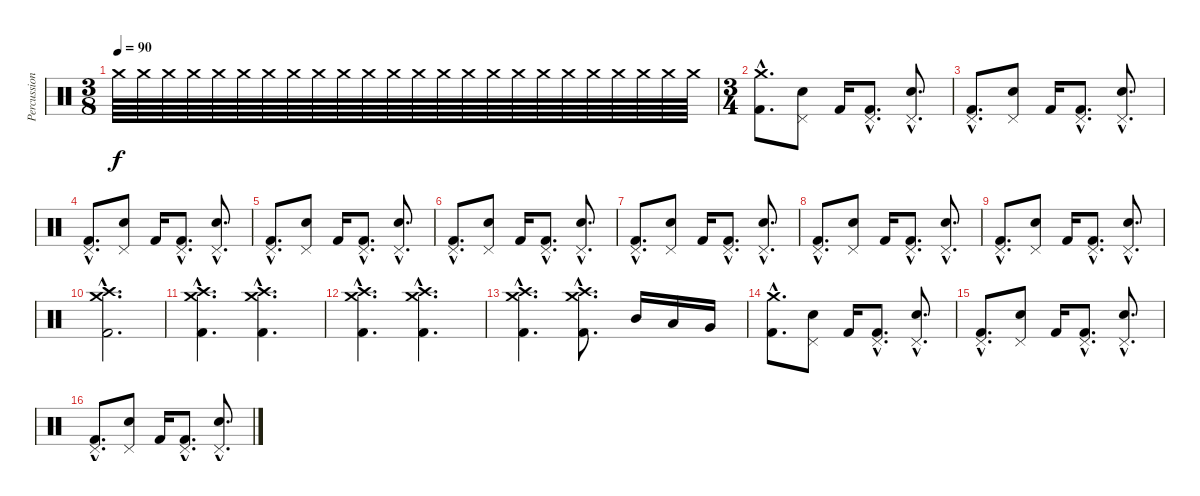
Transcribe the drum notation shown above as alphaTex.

\track ("Percussion" "Percussion") {instrument percussion}
\staff {score}
\articulation defaults
\ts (3 8)
\tempo 90
\clef neutral
\ks c "Crash medium (hit)".64{dy f volume 13} "Crash medium (hit)".64 "Crash medium (hit)".64 "Crash medium (hit)".64 "Crash medium (hit)".64 "Crash medium (hit)".64 "Crash medium (hit)".64 "Crash medium (hit)".64 "Crash medium (hit)".64 "Crash medium (hit)".64 "Crash medium (hit)".64 "Crash medium (hit)".64 "Crash medium (hit)".64 "Crash medium (hit)".64 "Crash medium (hit)".64 "Crash medium (hit)".64 "Crash medium (hit)".64 "Crash medium (hit)".64 "Crash medium (hit)".64 "Crash medium (hit)".64 "Crash medium (hit)".64 "Crash medium (hit)".64 "Crash medium (hit)".64 "Crash medium (hit)".64
|
\ts (3 4)
("Kick (hit) 2"{hac} "Crash medium (hit)"{hac}).8{d} ("Electric Snare (hit)" "Pedal Hi-Hat (hit)").8 "Kick (hit) 2".16 ("Kick (hit) 2"{hac} "Pedal Hi-Hat (hit)"{hac}).8{d} ("Electric Snare (hit)"{hac} "Pedal Hi-Hat (hit)"{hac}).8{d} |
("Kick (hit) 2"{hac} "Pedal Hi-Hat (hit)"{hac}).8{d} ("Electric Snare (hit)" "Pedal Hi-Hat (hit)").8 "Kick (hit) 2".16 ("Kick (hit) 2"{hac} "Pedal Hi-Hat (hit)"{hac}).8{d} ("Electric Snare (hit)"{hac} "Pedal Hi-Hat (hit)"{hac}).8{d} |
("Kick (hit) 2"{hac} "Pedal Hi-Hat (hit)"{hac}).8{d} ("Electric Snare (hit)" "Pedal Hi-Hat (hit)").8 "Kick (hit) 2".16 ("Kick (hit) 2"{hac} "Pedal Hi-Hat (hit)"{hac}).8{d} ("Electric Snare (hit)"{hac} "Pedal Hi-Hat (hit)"{hac}).8{d} |
("Kick (hit) 2"{hac} "Pedal Hi-Hat (hit)"{hac}).8{d} ("Electric Snare (hit)" "Pedal Hi-Hat (hit)").8 "Kick (hit) 2".16 ("Kick (hit) 2"{hac} "Pedal Hi-Hat (hit)"{hac}).8{d} ("Electric Snare (hit)"{hac} "Pedal Hi-Hat (hit)"{hac}).8{d} |
("Kick (hit) 2"{hac} "Pedal Hi-Hat (hit)"{hac}).8{d} ("Electric Snare (hit)" "Pedal Hi-Hat (hit)").8 "Kick (hit) 2".16 ("Kick (hit) 2"{hac} "Pedal Hi-Hat (hit)"{hac}).8{d} ("Electric Snare (hit)"{hac} "Pedal Hi-Hat (hit)"{hac}).8{d} |
("Kick (hit) 2"{hac} "Pedal Hi-Hat (hit)"{hac}).8{d} ("Electric Snare (hit)" "Pedal Hi-Hat (hit)").8 "Kick (hit) 2".16 ("Kick (hit) 2"{hac} "Pedal Hi-Hat (hit)"{hac}).8{d} ("Electric Snare (hit)"{hac} "Pedal Hi-Hat (hit)"{hac}).8{d} |
("Kick (hit) 2"{hac} "Pedal Hi-Hat (hit)"{hac}).8{d} ("Electric Snare (hit)" "Pedal Hi-Hat (hit)").8 "Kick (hit) 2".16 ("Kick (hit) 2"{hac} "Pedal Hi-Hat (hit)"{hac}).8{d} ("Electric Snare (hit)"{hac} "Pedal Hi-Hat (hit)"{hac}).8{d} |
("Kick (hit) 2"{hac} "Pedal Hi-Hat (hit)"{hac}).8{d} ("Electric Snare (hit)" "Pedal Hi-Hat (hit)").8 "Kick (hit) 2".16 ("Kick (hit) 2"{hac} "Pedal Hi-Hat (hit)"{hac}).8{d} ("Electric Snare (hit)"{hac} "Pedal Hi-Hat (hit)"{hac}).8{d} |
("Kick (hit) 2"{hac} "Crash high (hit)"{hac} "Crash medium (hit)"{hac}).2{d} |
("Kick (hit) 2"{hac} "Crash high (hit)"{hac} "Crash medium (hit)"{hac}).4{d} ("Kick (hit) 2"{hac} "Crash high (hit)"{hac} "Crash medium (hit)"{hac}).4{d} |
("Kick (hit) 2"{hac} "Crash high (hit)"{hac} "Crash medium (hit)"{hac}).4{d} ("Kick (hit) 2"{hac} "Crash high (hit)"{hac} "Crash medium (hit)"{hac}).4{d} |
("Kick (hit) 2"{hac} "Crash high (hit)"{hac} "Crash medium (hit)"{hac}).4{d} ("Kick (hit) 2"{hac} "Crash high (hit)"{hac} "Crash medium (hit)"{hac}).8{d} "Mid Tom (hit)".16 "Low Tom (hit)".16 "Very Low Tom (hit)".16 |
("Kick (hit) 2"{hac} "Crash medium (hit)"{hac}).8{d} ("Electric Snare (hit)" "Pedal Hi-Hat (hit)").8 "Kick (hit) 2".16 ("Kick (hit) 2"{hac} "Pedal Hi-Hat (hit)"{hac}).8{d} ("Electric Snare (hit)"{hac} "Pedal Hi-Hat (hit)"{hac}).8{d} |
("Kick (hit) 2"{hac} "Pedal Hi-Hat (hit)"{hac}).8{d} ("Electric Snare (hit)" "Pedal Hi-Hat (hit)").8 "Kick (hit) 2".16 ("Kick (hit) 2"{hac} "Pedal Hi-Hat (hit)"{hac}).8{d} ("Electric Snare (hit)"{hac} "Pedal Hi-Hat (hit)"{hac}).8{d} |
("Kick (hit) 2"{hac} "Pedal Hi-Hat (hit)"{hac}).8{d} ("Electric Snare (hit)" "Pedal Hi-Hat (hit)").8 "Kick (hit) 2".16 ("Kick (hit) 2"{hac} "Pedal Hi-Hat (hit)"{hac}).8{d} ("Electric Snare (hit)"{hac} "Pedal Hi-Hat (hit)"{hac}).8{d}
